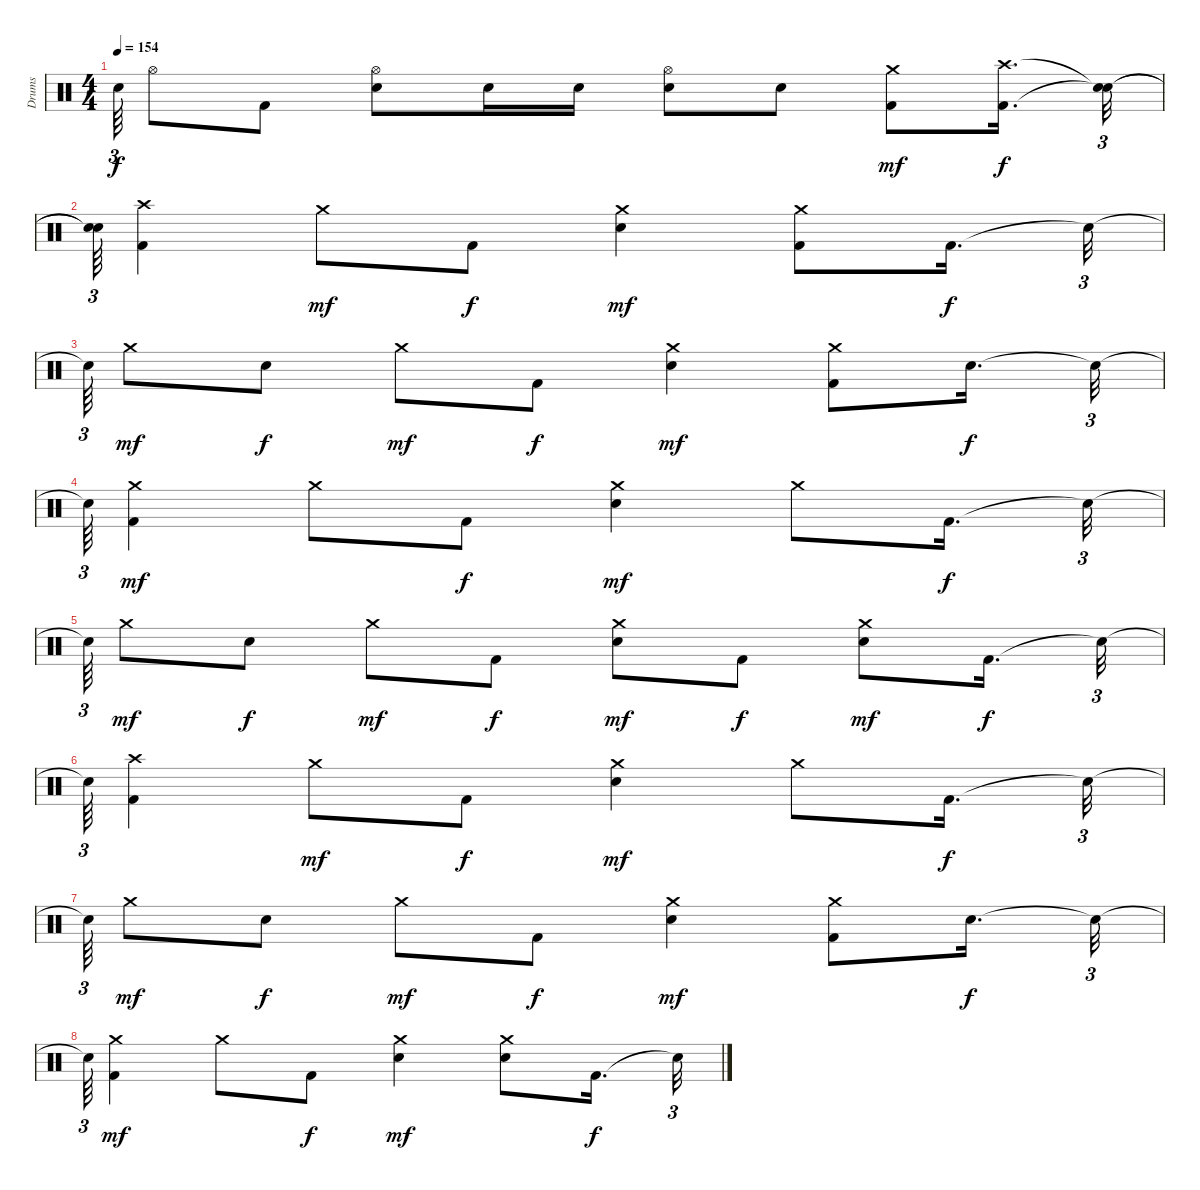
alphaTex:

\track ("Drums" "Drums") {instrument percussion}
\staff {score}
\articulation defaults
\ts (4 4)
\tempo 154
\clef neutral
\ks c "Snare (hit)"{t}.64{tu (3 2) dy f} "Hi-Hat (open)".8 "Kick (hit) 2".8
("Electric Snare (hit)" "Hi-Hat (open)").8 "Electric Snare (hit)".16 "Electric Snare (hit)".16 ("Electric Snare (hit)" "Hi-Hat (open)").8 "Electric Snare (hit)".8 ("Kick (hit) 2" "Crash medium (hit)").8{dy mf} ("Kick (hit) 2" "Crash high (hit)").16{d dy f} ("Snare (hit)"{t} "Snare (hit)"{t}).32{tu (3 2)} |
("Snare (hit)"{t} "Snare (hit)"{t}).64{tu (3 2)} ("Kick (hit) 2" "Crash high (hit)").4 "Crash medium (hit)".8{dy mf} "Kick (hit) 2".8{dy f} ("Electric Snare (hit)" "Crash medium (hit)").4{dy mf} ("Kick (hit) 2" "Crash medium (hit)").8 "Kick (hit) 2".16{d dy f} "Snare (hit)"{t}.32{tu (3 2)} |
"Snare (hit)"{t}.64{tu (3 2)} "Crash medium (hit)".8{dy mf} "Electric Snare (hit)".8{dy f} "Crash medium (hit)".8{dy mf} "Kick (hit) 2".8{dy f} ("Electric Snare (hit)" "Crash medium (hit)").4{dy mf} ("Kick (hit) 2" "Crash medium (hit)").8 "Electric Snare (hit)".16{d dy f} "Snare (hit)"{t}.32{tu (3 2)} |
"Snare (hit)"{t}.64{tu (3 2)} ("Kick (hit) 2" "Crash medium (hit)").4{dy mf} "Crash medium (hit)".8 "Kick (hit) 2".8{dy f} ("Electric Snare (hit)" "Crash medium (hit)").4{dy mf} "Crash medium (hit)".8 "Kick (hit) 2".16{d dy f} "Snare (hit)"{t}.32{tu (3 2)} |
"Snare (hit)"{t}.64{tu (3 2)} "Crash medium (hit)".8{dy mf} "Electric Snare (hit)".8{dy f} "Crash medium (hit)".8{dy mf} "Kick (hit) 2".8{dy f} ("Electric Snare (hit)" "Crash medium (hit)").8{dy mf} "Kick (hit) 2".8{dy f} ("Electric Snare (hit)" "Crash medium (hit)").8{dy mf} "Kick (hit) 2".16{d dy f} "Snare (hit)"{t}.32{tu (3 2)} |
"Snare (hit)"{t}.64{tu (3 2)} ("Kick (hit) 2" "Crash high (hit)").4 "Crash medium (hit)".8{dy mf} "Kick (hit) 2".8{dy f} ("Electric Snare (hit)" "Crash medium (hit)").4{dy mf} "Crash medium (hit)".8 "Kick (hit) 2".16{d dy f} "Snare (hit)"{t}.32{tu (3 2)} |
"Snare (hit)"{t}.64{tu (3 2)} "Crash medium (hit)".8{dy mf} "Electric Snare (hit)".8{dy f} "Crash medium (hit)".8{dy mf} "Kick (hit) 2".8{dy f} ("Electric Snare (hit)" "Crash medium (hit)").4{dy mf} ("Kick (hit) 2" "Crash medium (hit)").8 "Electric Snare (hit)".16{d dy f} "Snare (hit)"{t}.32{tu (3 2)} |
"Snare (hit)"{t}.64{tu (3 2)} ("Kick (hit) 2" "Crash medium (hit)").4{dy mf} "Crash medium (hit)".8 "Kick (hit) 2".8{dy f} ("Electric Snare (hit)" "Crash medium (hit)").4{dy mf} ("Electric Snare (hit)" "Crash medium (hit)").8 "Kick (hit) 2".16{d dy f} "Snare (hit)"{t}.32{tu (3 2)}
